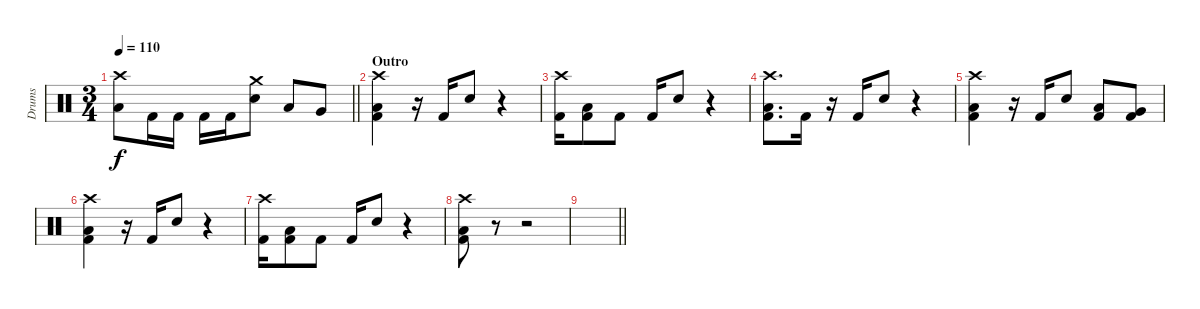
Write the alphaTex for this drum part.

\track ("Drums" "Drums") {instrument percussion}
\staff {score}
\articulation defaults
\ts (3 4)
\tempo 110
\clef neutral
\barLineRight lightlight
\ks c
("Crash high (hit)" "Low Floor Tom (hit)").8{dy f} "Kick (hit) 2".16 "Kick (hit) 2".16 "Kick (hit) 2".16 "Kick (hit) 2".16 ("Crash medium (hit)" "Snare (hit) 2").8 "Low Tom (hit)".8 "Very Low Tom (hit)".8 |
\section ("" "Outro")
("Crash high (hit)" "Low Floor Tom (hit)" "Kick (hit) 2").4 r.16 "Kick (hit) 2".16 "Snare (hit) 2".8 r.4 |
("Crash high (hit)" "Kick (hit) 2").16 ("Low Floor Tom (hit)" "Kick (hit) 2").8 "Kick (hit) 2".8 "Kick (hit) 2".16 "Snare (hit) 2".8 r.4 |
("Crash high (hit)" "Low Floor Tom (hit)" "Kick (hit) 2").8{d} "Kick (hit) 2".16 r.16 "Kick (hit) 2".16 "Snare (hit) 2".8 r.4 |
("Crash high (hit)" "Low Floor Tom (hit)" "Kick (hit) 2").4 r.16 "Kick (hit) 2".16 "Snare (hit) 2".8 ("Low Tom (hit)" "Kick (hit) 2").8 ("Very Low Tom (hit)" "Kick (hit) 2").8 |
("Crash high (hit)" "Low Floor Tom (hit)" "Kick (hit) 2").4 r.16 "Kick (hit) 2".16 "Snare (hit) 2".8 r.4 |
("Crash high (hit)" "Kick (hit) 2").16 ("Low Floor Tom (hit)" "Kick (hit) 2").8 "Kick (hit) 2".8 "Kick (hit) 2".16 "Snare (hit) 2".8 r.4 |
("Crash high (hit)" "Low Floor Tom (hit)" "Kick (hit) 2").8 r.8 r.2 |
\barLineRight lightlight
